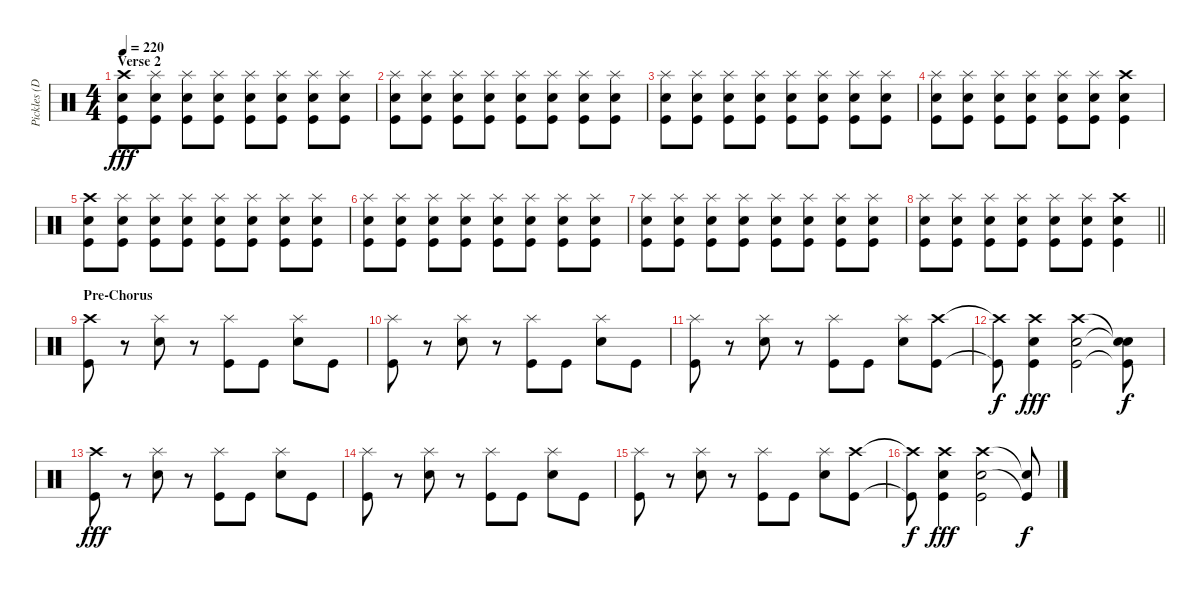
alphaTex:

\track ("Pickles (Drums)" "Pickles (D") {instrument percussion}
\staff {score}
\articulation defaults
\ts (4 4)
\section ("" "Verse 2")
\tempo 220
\clef neutral
\ks c
("Crash high (hit)" "Electric Snare (hit)" "Kick (hit)").8{dy fff} ("Splash (hit)" "Electric Snare (hit)" "Kick (hit)").8 ("Splash (hit)" "Electric Snare (hit)" "Kick (hit)").8 ("Splash (hit)" "Electric Snare (hit)" "Kick (hit)").8 ("Splash (hit)" "Electric Snare (hit)" "Kick (hit)").8 ("Splash (hit)" "Electric Snare (hit)" "Kick (hit)").8 ("Splash (hit)" "Electric Snare (hit)" "Kick (hit)").8 ("Splash (hit)" "Electric Snare (hit)" "Kick (hit)").8 |
("Splash (hit)" "Electric Snare (hit)" "Kick (hit)").8 ("Splash (hit)" "Electric Snare (hit)" "Kick (hit)").8 ("Splash (hit)" "Electric Snare (hit)" "Kick (hit)").8 ("Splash (hit)" "Electric Snare (hit)" "Kick (hit)").8 ("Splash (hit)" "Electric Snare (hit)" "Kick (hit)").8 ("Splash (hit)" "Electric Snare (hit)" "Kick (hit)").8 ("Splash (hit)" "Electric Snare (hit)" "Kick (hit)").8 ("Splash (hit)" "Electric Snare (hit)" "Kick (hit)").8 |
("Splash (hit)" "Electric Snare (hit)" "Kick (hit)").8 ("Splash (hit)" "Electric Snare (hit)" "Kick (hit)").8 ("Splash (hit)" "Electric Snare (hit)" "Kick (hit)").8 ("Splash (hit)" "Electric Snare (hit)" "Kick (hit)").8 ("Splash (hit)" "Electric Snare (hit)" "Kick (hit)").8 ("Splash (hit)" "Electric Snare (hit)" "Kick (hit)").8 ("Splash (hit)" "Electric Snare (hit)" "Kick (hit)").8 ("Splash (hit)" "Electric Snare (hit)" "Kick (hit)").8 |
("Splash (hit)" "Electric Snare (hit)" "Kick (hit)").8 ("Splash (hit)" "Electric Snare (hit)" "Kick (hit)").8 ("Splash (hit)" "Electric Snare (hit)" "Kick (hit)").8 ("Splash (hit)" "Electric Snare (hit)" "Kick (hit)").8 ("Splash (hit)" "Electric Snare (hit)" "Kick (hit)").8 ("Splash (hit)" "Electric Snare (hit)" "Kick (hit)").8 ("Crash high (hit)" "Electric Snare (hit)" "Kick (hit)").4 |
("Crash high (hit)" "Electric Snare (hit)" "Kick (hit)").8 ("Splash (hit)" "Electric Snare (hit)" "Kick (hit)").8 ("Splash (hit)" "Electric Snare (hit)" "Kick (hit)").8 ("Splash (hit)" "Electric Snare (hit)" "Kick (hit)").8 ("Splash (hit)" "Electric Snare (hit)" "Kick (hit)").8 ("Splash (hit)" "Electric Snare (hit)" "Kick (hit)").8 ("Splash (hit)" "Electric Snare (hit)" "Kick (hit)").8 ("Splash (hit)" "Electric Snare (hit)" "Kick (hit)").8 |
("Splash (hit)" "Electric Snare (hit)" "Kick (hit)").8 ("Splash (hit)" "Electric Snare (hit)" "Kick (hit)").8 ("Splash (hit)" "Electric Snare (hit)" "Kick (hit)").8 ("Splash (hit)" "Electric Snare (hit)" "Kick (hit)").8 ("Splash (hit)" "Electric Snare (hit)" "Kick (hit)").8 ("Splash (hit)" "Electric Snare (hit)" "Kick (hit)").8 ("Splash (hit)" "Electric Snare (hit)" "Kick (hit)").8 ("Splash (hit)" "Electric Snare (hit)" "Kick (hit)").8 |
("Splash (hit)" "Electric Snare (hit)" "Kick (hit)").8 ("Splash (hit)" "Electric Snare (hit)" "Kick (hit)").8 ("Splash (hit)" "Electric Snare (hit)" "Kick (hit)").8 ("Splash (hit)" "Electric Snare (hit)" "Kick (hit)").8 ("Splash (hit)" "Electric Snare (hit)" "Kick (hit)").8 ("Splash (hit)" "Electric Snare (hit)" "Kick (hit)").8 ("Splash (hit)" "Electric Snare (hit)" "Kick (hit)").8 ("Splash (hit)" "Electric Snare (hit)" "Kick (hit)").8 |
\barLineRight lightlight
("Splash (hit)" "Electric Snare (hit)" "Kick (hit)").8 ("Splash (hit)" "Electric Snare (hit)" "Kick (hit)").8 ("Splash (hit)" "Electric Snare (hit)" "Kick (hit)").8 ("Splash (hit)" "Electric Snare (hit)" "Kick (hit)").8 ("Splash (hit)" "Electric Snare (hit)" "Kick (hit)").8 ("Splash (hit)" "Electric Snare (hit)" "Kick (hit)").8 ("Crash high (hit)" "Electric Snare (hit)" "Kick (hit)").4 |
\section ("" "Pre-Chorus")
("Crash high (hit)" "Kick (hit)").8 r.8 ("Splash (hit)" "Electric Snare (hit)").8 r.8 ("Splash (hit)" "Kick (hit)").8 "Kick (hit)".8 ("Splash (hit)" "Electric Snare (hit)").8 "Kick (hit)".8 |
("Splash (hit)" "Kick (hit)").8 r.8 ("Splash (hit)" "Electric Snare (hit)").8 r.8 ("Splash (hit)" "Kick (hit)").8 "Kick (hit)".8 ("Splash (hit)" "Electric Snare (hit)").8 "Kick (hit)".8 |
("Splash (hit)" "Kick (hit)").8 r.8 ("Splash (hit)" "Electric Snare (hit)").8 r.8 ("Splash (hit)" "Kick (hit)").8 "Kick (hit)".8 ("Splash (hit)" "Electric Snare (hit)").8 ("Crash high (hit)" "Kick (hit)").8 |
("Crash high (hit)"{t} "Kick (hit)"{t}).8{dy f} ("Crash high (hit)" "Electric Snare (hit)" "Kick (hit)").4{dy fff} ("Crash high (hit)" "Electric Snare (hit)" "Kick (hit)").2 ("Snare (hit)"{t} "Electric Snare (hit)"{t} "Kick (hit)"{t}).8{dy f} |
("Crash high (hit)" "Kick (hit)").8{dy fff} r.8 ("Splash (hit)" "Electric Snare (hit)").8 r.8 ("Splash (hit)" "Kick (hit)").8 "Kick (hit)".8 ("Splash (hit)" "Electric Snare (hit)").8 "Kick (hit)".8 |
("Splash (hit)" "Kick (hit)").8 r.8 ("Splash (hit)" "Electric Snare (hit)").8 r.8 ("Splash (hit)" "Kick (hit)").8 "Kick (hit)".8 ("Splash (hit)" "Electric Snare (hit)").8 "Kick (hit)".8 |
("Splash (hit)" "Kick (hit)").8 r.8 ("Splash (hit)" "Electric Snare (hit)").8 r.8 ("Splash (hit)" "Kick (hit)").8 "Kick (hit)".8 ("Splash (hit)" "Electric Snare (hit)").8 ("Crash high (hit)" "Kick (hit)").8 |
("Crash high (hit)"{t} "Kick (hit)"{t}).8{dy f} ("Crash high (hit)" "Electric Snare (hit)" "Kick (hit)").4{dy fff} ("Crash high (hit)" "Electric Snare (hit)" "Kick (hit)").2 ("Snare (hit)"{t} "Kick (hit)"{t}).8{dy f}
